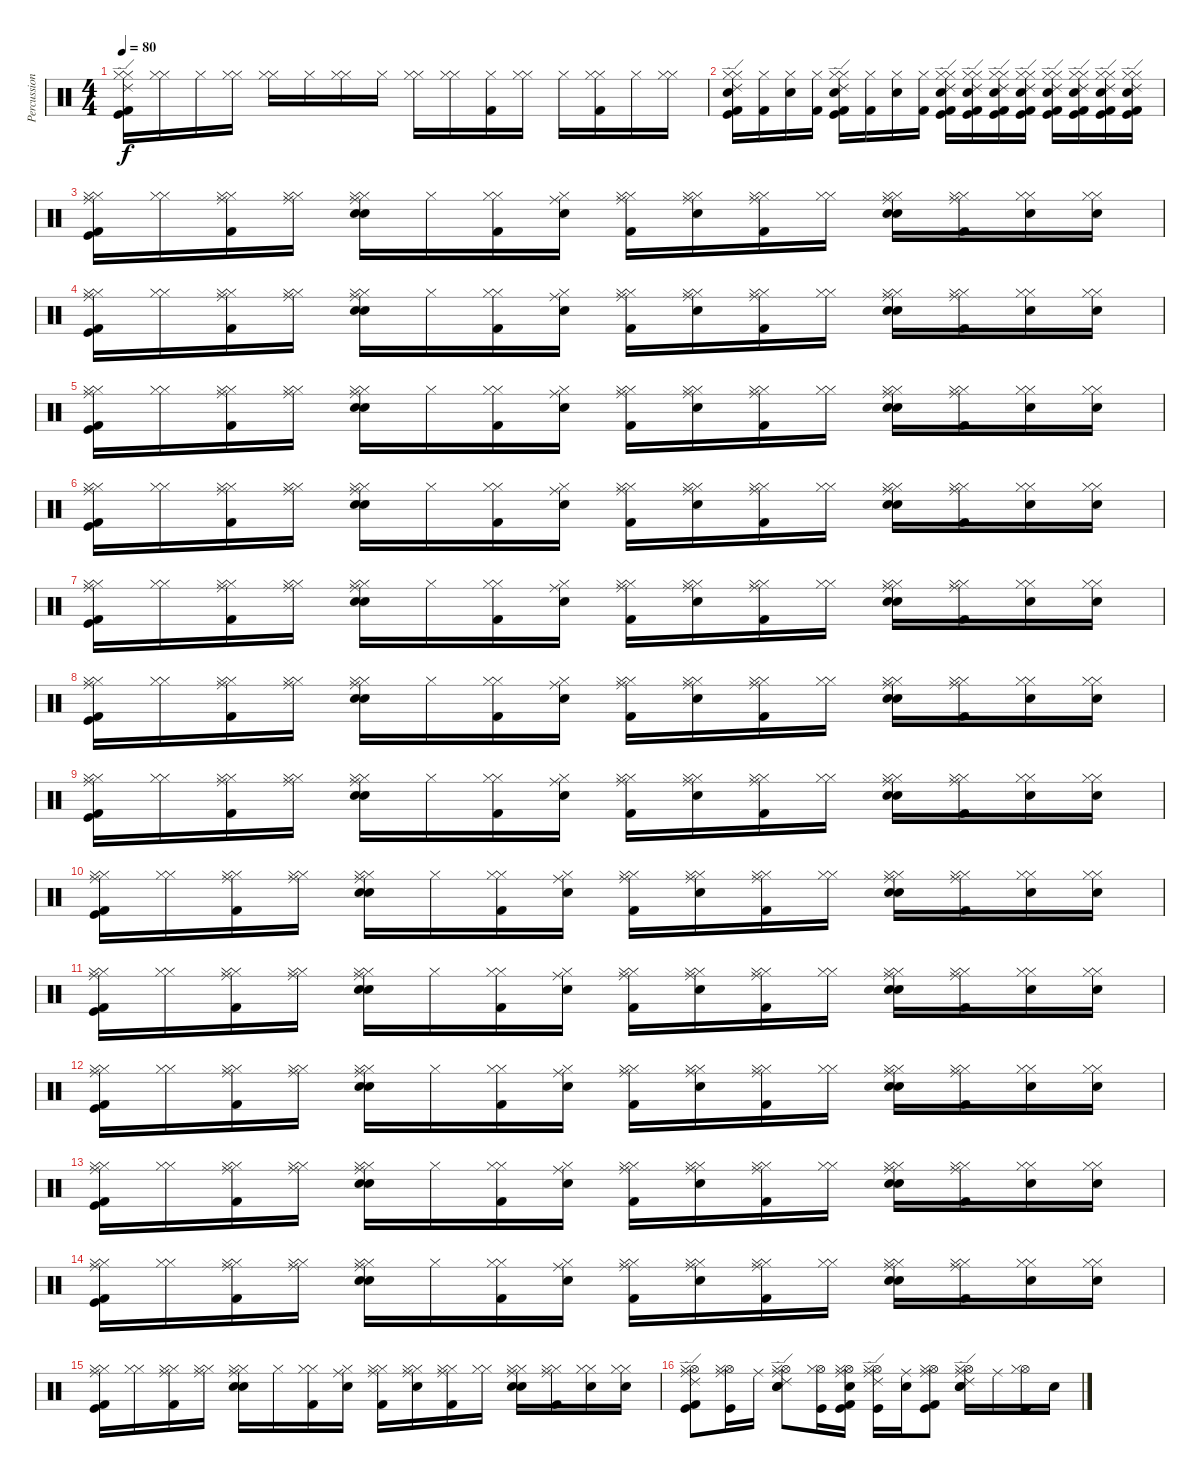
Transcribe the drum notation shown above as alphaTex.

\track ("Percussions" "Percussion") {instrument percussion}
\staff {score}
\articulation defaults
\ts (4 4)
\tempo 80
\clef neutral
\ks c
("Hi-Hat (closed)" "Hi-Hat (closed)" "Ride (edge) 2" "Kick (hit) 2" "Kick (hit)").16{dy f} ("Hi-Hat (closed)" "Hi-Hat (closed)").16 "Hi-Hat (closed)".16 ("Hi-Hat (closed)" "Hi-Hat (closed)").16 ("Hi-Hat (closed)" "Hi-Hat (closed)").16 "Hi-Hat (closed)".16 ("Hi-Hat (closed)" "Hi-Hat (closed)").16 "Hi-Hat (closed)".16 ("Hi-Hat (closed)" "Hi-Hat (closed)").16 ("Hi-Hat (closed)" "Hi-Hat (closed)").16 ("Hi-Hat (closed)" "Kick (hit) 2").16 ("Hi-Hat (closed)" "Hi-Hat (closed)").16 "Hi-Hat (closed)".16 ("Hi-Hat (closed)" "Hi-Hat (closed)" "Kick (hit) 2").16 "Hi-Hat (closed)".16 ("Hi-Hat (closed)" "Hi-Hat (closed)").16 |
("Ride (edge) 2" "Hi-Hat (closed)" "Hi-Hat (closed)" "Snare (hit) 2" "Kick (hit) 2" "Kick (hit)").16 ("Hi-Hat (closed)" "Kick (hit) 2").16 ("Hi-Hat (closed)" "Snare (hit) 2").16 ("Hi-Hat (closed)" "Kick (hit) 2").16 ("Hi-Hat (closed)" "Ride (edge) 2" "Hi-Hat (closed)" "Snare (hit) 2" "Kick (hit)" "Kick (hit) 2").16 ("Hi-Hat (closed)" "Kick (hit) 2").16 ("Hi-Hat (closed)" "Snare (hit) 2").16 ("Hi-Hat (closed)" "Kick (hit) 2").16 ("Ride (edge) 2" "Hi-Hat (closed)" "Electric Snare (hit)" "Hi-Hat (closed)" "Kick (hit) 2" "Kick (hit)").16 ("Ride (edge) 2" "Electric Snare (hit)" "Hi-Hat (closed)" "Hi-Hat (closed)" "Kick (hit) 2" "Kick (hit)").16 ("Hi-Hat (closed)" "Ride (edge) 2" "Electric Snare (hit)" "Hi-Hat (closed)" "Kick (hit) 2" "Kick (hit)").16 ("Hi-Hat (closed)" "Hi-Hat (closed)" "Ride (edge) 2" "Electric Snare (hit)" "Kick (hit) 2" "Kick (hit)").16 ("Hi-Hat (closed)" "Ride (edge) 2" "Electric Snare (hit)" "Hi-Hat (closed)" "Kick (hit) 2" "Kick (hit)").16 ("Ride (edge) 2" "Electric Snare (hit)" "Hi-Hat (closed)" "Hi-Hat (closed)" "Kick (hit) 2" "Kick (hit)").16 ("Hi-Hat (closed)" "Ride (edge) 2" "Electric Snare (hit)" "Hi-Hat (closed)" "Kick (hit) 2" "Kick (hit)").16 ("Hi-Hat (closed)" "Hi-Hat (closed)" "Ride (edge) 2" "Electric Snare (hit)" "Kick (hit) 2" "Kick (hit)").16 |
("Hi-Hat (closed)" "Hi-Hat (closed)" "Ride (middle)" "Kick (hit) 2" "Kick (hit)").16 ("Hi-Hat (closed)" "Hi-Hat (closed)").16 ("Hi-Hat (closed)" "Ride (middle)" "Hi-Hat (closed)" "Kick (hit) 2").16 ("Hi-Hat (closed)" "Hi-Hat (closed)" "Ride (middle)").16 ("Snare (hit) 2" "Electric Snare (hit)" "Hi-Hat (closed)" "Hi-Hat (closed)" "Ride (middle)").16 "Hi-Hat (closed)".16 ("Hi-Hat (closed)" "Hi-Hat (closed)" "Kick (hit) 2").16 ("Electric Snare (hit)" "Hi-Hat (closed)" "Ride (middle)").16 ("Hi-Hat (closed)" "Hi-Hat (closed)" "Ride (middle)" "Kick (hit) 2").16 ("Hi-Hat (closed)" "Hi-Hat (closed)" "Ride (middle)" "Electric Snare (hit)").16 ("Hi-Hat (closed)" "Ride (middle)" "Hi-Hat (closed)" "Kick (hit) 2").16 ("Hi-Hat (closed)" "Hi-Hat (closed)").16 ("Snare (hit) 2" "Electric Snare (hit)" "Hi-Hat (closed)" "Ride (middle)" "Hi-Hat (closed)").16 ("Hi-Hat (closed)" "Hi-Hat (closed)" "Ride (middle)" "Kick (hit) 2").16 ("Hi-Hat (closed)" "Hi-Hat (closed)" "Electric Snare (hit)").16 ("Hi-Hat (closed)" "Hi-Hat (closed)" "Electric Snare (hit)").16 |
("Hi-Hat (closed)" "Hi-Hat (closed)" "Ride (middle)" "Kick (hit) 2" "Kick (hit)").16 ("Hi-Hat (closed)" "Hi-Hat (closed)").16 ("Hi-Hat (closed)" "Ride (middle)" "Hi-Hat (closed)" "Kick (hit) 2").16 ("Hi-Hat (closed)" "Hi-Hat (closed)" "Ride (middle)").16 ("Snare (hit) 2" "Electric Snare (hit)" "Hi-Hat (closed)" "Hi-Hat (closed)" "Ride (middle)").16 "Hi-Hat (closed)".16 ("Hi-Hat (closed)" "Hi-Hat (closed)" "Kick (hit) 2").16 ("Electric Snare (hit)" "Hi-Hat (closed)" "Ride (middle)").16 ("Hi-Hat (closed)" "Hi-Hat (closed)" "Ride (middle)" "Kick (hit) 2").16 ("Hi-Hat (closed)" "Hi-Hat (closed)" "Ride (middle)" "Electric Snare (hit)").16 ("Hi-Hat (closed)" "Ride (middle)" "Hi-Hat (closed)" "Kick (hit) 2").16 ("Hi-Hat (closed)" "Hi-Hat (closed)").16 ("Snare (hit) 2" "Electric Snare (hit)" "Hi-Hat (closed)" "Ride (middle)" "Hi-Hat (closed)").16 ("Hi-Hat (closed)" "Hi-Hat (closed)" "Ride (middle)" "Kick (hit) 2").16 ("Hi-Hat (closed)" "Hi-Hat (closed)" "Electric Snare (hit)").16 ("Hi-Hat (closed)" "Hi-Hat (closed)" "Electric Snare (hit)").16 |
("Hi-Hat (closed)" "Hi-Hat (closed)" "Ride (middle)" "Kick (hit) 2" "Kick (hit)").16 ("Hi-Hat (closed)" "Hi-Hat (closed)").16 ("Hi-Hat (closed)" "Ride (middle)" "Hi-Hat (closed)" "Kick (hit) 2").16 ("Hi-Hat (closed)" "Hi-Hat (closed)" "Ride (middle)").16 ("Snare (hit) 2" "Electric Snare (hit)" "Hi-Hat (closed)" "Hi-Hat (closed)" "Ride (middle)").16 "Hi-Hat (closed)".16 ("Hi-Hat (closed)" "Hi-Hat (closed)" "Kick (hit) 2").16 ("Electric Snare (hit)" "Hi-Hat (closed)" "Ride (middle)").16 ("Hi-Hat (closed)" "Hi-Hat (closed)" "Ride (middle)" "Kick (hit) 2").16 ("Hi-Hat (closed)" "Hi-Hat (closed)" "Ride (middle)" "Electric Snare (hit)").16 ("Hi-Hat (closed)" "Ride (middle)" "Hi-Hat (closed)" "Kick (hit) 2").16 ("Hi-Hat (closed)" "Hi-Hat (closed)").16 ("Snare (hit) 2" "Electric Snare (hit)" "Hi-Hat (closed)" "Ride (middle)" "Hi-Hat (closed)").16 ("Hi-Hat (closed)" "Hi-Hat (closed)" "Ride (middle)" "Kick (hit) 2").16 ("Hi-Hat (closed)" "Hi-Hat (closed)" "Electric Snare (hit)").16 ("Hi-Hat (closed)" "Hi-Hat (closed)" "Electric Snare (hit)").16 |
("Hi-Hat (closed)" "Hi-Hat (closed)" "Ride (middle)" "Kick (hit) 2" "Kick (hit)").16 ("Hi-Hat (closed)" "Hi-Hat (closed)").16 ("Hi-Hat (closed)" "Ride (middle)" "Hi-Hat (closed)" "Kick (hit) 2").16 ("Hi-Hat (closed)" "Hi-Hat (closed)" "Ride (middle)").16 ("Snare (hit) 2" "Electric Snare (hit)" "Hi-Hat (closed)" "Hi-Hat (closed)" "Ride (middle)").16 "Hi-Hat (closed)".16 ("Hi-Hat (closed)" "Hi-Hat (closed)" "Kick (hit) 2").16 ("Electric Snare (hit)" "Hi-Hat (closed)" "Ride (middle)").16 ("Hi-Hat (closed)" "Hi-Hat (closed)" "Ride (middle)" "Kick (hit) 2").16 ("Hi-Hat (closed)" "Hi-Hat (closed)" "Ride (middle)" "Electric Snare (hit)").16 ("Hi-Hat (closed)" "Ride (middle)" "Hi-Hat (closed)" "Kick (hit) 2").16 ("Hi-Hat (closed)" "Hi-Hat (closed)").16 ("Snare (hit) 2" "Electric Snare (hit)" "Hi-Hat (closed)" "Ride (middle)" "Hi-Hat (closed)").16 ("Hi-Hat (closed)" "Hi-Hat (closed)" "Ride (middle)" "Kick (hit) 2").16 ("Hi-Hat (closed)" "Hi-Hat (closed)" "Electric Snare (hit)").16 ("Hi-Hat (closed)" "Hi-Hat (closed)" "Electric Snare (hit)").16 |
("Hi-Hat (closed)" "Hi-Hat (closed)" "Ride (middle)" "Kick (hit) 2" "Kick (hit)").16 ("Hi-Hat (closed)" "Hi-Hat (closed)").16 ("Hi-Hat (closed)" "Ride (middle)" "Hi-Hat (closed)" "Kick (hit) 2").16 ("Hi-Hat (closed)" "Hi-Hat (closed)" "Ride (middle)").16 ("Snare (hit) 2" "Electric Snare (hit)" "Hi-Hat (closed)" "Hi-Hat (closed)" "Ride (middle)").16 "Hi-Hat (closed)".16 ("Hi-Hat (closed)" "Hi-Hat (closed)" "Kick (hit) 2").16 ("Electric Snare (hit)" "Hi-Hat (closed)" "Ride (middle)").16 ("Hi-Hat (closed)" "Hi-Hat (closed)" "Ride (middle)" "Kick (hit) 2").16 ("Hi-Hat (closed)" "Hi-Hat (closed)" "Ride (middle)" "Electric Snare (hit)").16 ("Hi-Hat (closed)" "Ride (middle)" "Hi-Hat (closed)" "Kick (hit) 2").16 ("Hi-Hat (closed)" "Hi-Hat (closed)").16 ("Snare (hit) 2" "Electric Snare (hit)" "Hi-Hat (closed)" "Ride (middle)" "Hi-Hat (closed)").16 ("Hi-Hat (closed)" "Hi-Hat (closed)" "Ride (middle)" "Kick (hit) 2").16 ("Hi-Hat (closed)" "Hi-Hat (closed)" "Electric Snare (hit)").16 ("Hi-Hat (closed)" "Hi-Hat (closed)" "Electric Snare (hit)").16 |
("Hi-Hat (closed)" "Hi-Hat (closed)" "Ride (middle)" "Kick (hit) 2" "Kick (hit)").16 ("Hi-Hat (closed)" "Hi-Hat (closed)").16 ("Hi-Hat (closed)" "Ride (middle)" "Hi-Hat (closed)" "Kick (hit) 2").16 ("Hi-Hat (closed)" "Hi-Hat (closed)" "Ride (middle)").16 ("Snare (hit) 2" "Electric Snare (hit)" "Hi-Hat (closed)" "Hi-Hat (closed)" "Ride (middle)").16 "Hi-Hat (closed)".16 ("Hi-Hat (closed)" "Hi-Hat (closed)" "Kick (hit) 2").16 ("Electric Snare (hit)" "Hi-Hat (closed)" "Ride (middle)").16 ("Hi-Hat (closed)" "Hi-Hat (closed)" "Ride (middle)" "Kick (hit) 2").16 ("Hi-Hat (closed)" "Hi-Hat (closed)" "Ride (middle)" "Electric Snare (hit)").16 ("Hi-Hat (closed)" "Ride (middle)" "Hi-Hat (closed)" "Kick (hit) 2").16 ("Hi-Hat (closed)" "Hi-Hat (closed)").16 ("Snare (hit) 2" "Electric Snare (hit)" "Hi-Hat (closed)" "Ride (middle)" "Hi-Hat (closed)").16 ("Hi-Hat (closed)" "Hi-Hat (closed)" "Ride (middle)" "Kick (hit) 2").16 ("Hi-Hat (closed)" "Hi-Hat (closed)" "Electric Snare (hit)").16 ("Hi-Hat (closed)" "Hi-Hat (closed)" "Electric Snare (hit)").16 |
("Hi-Hat (closed)" "Hi-Hat (closed)" "Ride (middle)" "Kick (hit) 2" "Kick (hit)").16 ("Hi-Hat (closed)" "Hi-Hat (closed)").16 ("Hi-Hat (closed)" "Ride (middle)" "Hi-Hat (closed)" "Kick (hit) 2").16 ("Hi-Hat (closed)" "Hi-Hat (closed)" "Ride (middle)").16 ("Snare (hit) 2" "Electric Snare (hit)" "Hi-Hat (closed)" "Hi-Hat (closed)" "Ride (middle)").16 "Hi-Hat (closed)".16 ("Hi-Hat (closed)" "Hi-Hat (closed)" "Kick (hit) 2").16 ("Electric Snare (hit)" "Hi-Hat (closed)" "Ride (middle)").16 ("Hi-Hat (closed)" "Hi-Hat (closed)" "Ride (middle)" "Kick (hit) 2").16 ("Hi-Hat (closed)" "Hi-Hat (closed)" "Ride (middle)" "Electric Snare (hit)").16 ("Hi-Hat (closed)" "Ride (middle)" "Hi-Hat (closed)" "Kick (hit) 2").16 ("Hi-Hat (closed)" "Hi-Hat (closed)").16 ("Snare (hit) 2" "Electric Snare (hit)" "Hi-Hat (closed)" "Ride (middle)" "Hi-Hat (closed)").16 ("Hi-Hat (closed)" "Hi-Hat (closed)" "Ride (middle)" "Kick (hit) 2").16 ("Hi-Hat (closed)" "Hi-Hat (closed)" "Electric Snare (hit)").16 ("Hi-Hat (closed)" "Hi-Hat (closed)" "Electric Snare (hit)").16 |
("Hi-Hat (closed)" "Hi-Hat (closed)" "Ride (middle)" "Kick (hit) 2" "Kick (hit)").16 ("Hi-Hat (closed)" "Hi-Hat (closed)").16 ("Hi-Hat (closed)" "Ride (middle)" "Hi-Hat (closed)" "Kick (hit) 2").16 ("Hi-Hat (closed)" "Hi-Hat (closed)" "Ride (middle)").16 ("Snare (hit) 2" "Electric Snare (hit)" "Hi-Hat (closed)" "Hi-Hat (closed)" "Ride (middle)").16 "Hi-Hat (closed)".16 ("Hi-Hat (closed)" "Hi-Hat (closed)" "Kick (hit) 2").16 ("Electric Snare (hit)" "Hi-Hat (closed)" "Ride (middle)").16 ("Hi-Hat (closed)" "Hi-Hat (closed)" "Ride (middle)" "Kick (hit) 2").16 ("Hi-Hat (closed)" "Hi-Hat (closed)" "Ride (middle)" "Electric Snare (hit)").16 ("Hi-Hat (closed)" "Ride (middle)" "Hi-Hat (closed)" "Kick (hit) 2").16 ("Hi-Hat (closed)" "Hi-Hat (closed)").16 ("Snare (hit) 2" "Electric Snare (hit)" "Hi-Hat (closed)" "Ride (middle)" "Hi-Hat (closed)").16 ("Hi-Hat (closed)" "Hi-Hat (closed)" "Ride (middle)" "Kick (hit) 2").16 ("Hi-Hat (closed)" "Hi-Hat (closed)" "Electric Snare (hit)").16 ("Hi-Hat (closed)" "Hi-Hat (closed)" "Electric Snare (hit)").16 |
("Hi-Hat (closed)" "Hi-Hat (closed)" "Ride (middle)" "Kick (hit) 2" "Kick (hit)").16 ("Hi-Hat (closed)" "Hi-Hat (closed)").16 ("Hi-Hat (closed)" "Ride (middle)" "Hi-Hat (closed)" "Kick (hit) 2").16 ("Hi-Hat (closed)" "Hi-Hat (closed)" "Ride (middle)").16 ("Snare (hit) 2" "Electric Snare (hit)" "Hi-Hat (closed)" "Hi-Hat (closed)" "Ride (middle)").16 "Hi-Hat (closed)".16 ("Hi-Hat (closed)" "Hi-Hat (closed)" "Kick (hit) 2").16 ("Electric Snare (hit)" "Hi-Hat (closed)" "Ride (middle)").16 ("Hi-Hat (closed)" "Hi-Hat (closed)" "Ride (middle)" "Kick (hit) 2").16 ("Hi-Hat (closed)" "Hi-Hat (closed)" "Ride (middle)" "Electric Snare (hit)").16 ("Hi-Hat (closed)" "Ride (middle)" "Hi-Hat (closed)" "Kick (hit) 2").16 ("Hi-Hat (closed)" "Hi-Hat (closed)").16 ("Snare (hit) 2" "Electric Snare (hit)" "Hi-Hat (closed)" "Ride (middle)" "Hi-Hat (closed)").16 ("Hi-Hat (closed)" "Hi-Hat (closed)" "Ride (middle)" "Kick (hit) 2").16 ("Hi-Hat (closed)" "Hi-Hat (closed)" "Electric Snare (hit)").16 ("Hi-Hat (closed)" "Hi-Hat (closed)" "Electric Snare (hit)").16 |
("Hi-Hat (closed)" "Hi-Hat (closed)" "Ride (middle)" "Kick (hit) 2" "Kick (hit)").16 ("Hi-Hat (closed)" "Hi-Hat (closed)").16 ("Hi-Hat (closed)" "Ride (middle)" "Hi-Hat (closed)" "Kick (hit) 2").16 ("Hi-Hat (closed)" "Hi-Hat (closed)" "Ride (middle)").16 ("Snare (hit) 2" "Electric Snare (hit)" "Hi-Hat (closed)" "Hi-Hat (closed)" "Ride (middle)").16 "Hi-Hat (closed)".16 ("Hi-Hat (closed)" "Hi-Hat (closed)" "Kick (hit) 2").16 ("Electric Snare (hit)" "Hi-Hat (closed)" "Ride (middle)").16 ("Hi-Hat (closed)" "Hi-Hat (closed)" "Ride (middle)" "Kick (hit) 2").16 ("Hi-Hat (closed)" "Hi-Hat (closed)" "Ride (middle)" "Electric Snare (hit)").16 ("Hi-Hat (closed)" "Ride (middle)" "Hi-Hat (closed)" "Kick (hit) 2").16 ("Hi-Hat (closed)" "Hi-Hat (closed)").16 ("Snare (hit) 2" "Electric Snare (hit)" "Hi-Hat (closed)" "Ride (middle)" "Hi-Hat (closed)").16 ("Hi-Hat (closed)" "Hi-Hat (closed)" "Ride (middle)" "Kick (hit) 2").16 ("Hi-Hat (closed)" "Hi-Hat (closed)" "Electric Snare (hit)").16 ("Hi-Hat (closed)" "Hi-Hat (closed)" "Electric Snare (hit)").16 |
("Hi-Hat (closed)" "Hi-Hat (closed)" "Ride (middle)" "Kick (hit) 2" "Kick (hit)").16 ("Hi-Hat (closed)" "Hi-Hat (closed)").16 ("Hi-Hat (closed)" "Ride (middle)" "Hi-Hat (closed)" "Kick (hit) 2").16 ("Hi-Hat (closed)" "Hi-Hat (closed)" "Ride (middle)").16 ("Snare (hit) 2" "Electric Snare (hit)" "Hi-Hat (closed)" "Hi-Hat (closed)" "Ride (middle)").16 "Hi-Hat (closed)".16 ("Hi-Hat (closed)" "Hi-Hat (closed)" "Kick (hit) 2").16 ("Electric Snare (hit)" "Hi-Hat (closed)" "Ride (middle)").16 ("Hi-Hat (closed)" "Hi-Hat (closed)" "Ride (middle)" "Kick (hit) 2").16 ("Hi-Hat (closed)" "Hi-Hat (closed)" "Ride (middle)" "Electric Snare (hit)").16 ("Hi-Hat (closed)" "Ride (middle)" "Hi-Hat (closed)" "Kick (hit) 2").16 ("Hi-Hat (closed)" "Hi-Hat (closed)").16 ("Snare (hit) 2" "Electric Snare (hit)" "Hi-Hat (closed)" "Ride (middle)" "Hi-Hat (closed)").16 ("Hi-Hat (closed)" "Hi-Hat (closed)" "Ride (middle)" "Kick (hit) 2").16 ("Hi-Hat (closed)" "Hi-Hat (closed)" "Electric Snare (hit)").16 ("Hi-Hat (closed)" "Hi-Hat (closed)" "Electric Snare (hit)").16 |
("Hi-Hat (closed)" "Hi-Hat (closed)" "Ride (middle)" "Kick (hit) 2" "Kick (hit)").16 ("Hi-Hat (closed)" "Hi-Hat (closed)").16 ("Hi-Hat (closed)" "Ride (middle)" "Hi-Hat (closed)" "Kick (hit) 2").16 ("Hi-Hat (closed)" "Hi-Hat (closed)" "Ride (middle)").16 ("Snare (hit) 2" "Electric Snare (hit)" "Hi-Hat (closed)" "Hi-Hat (closed)" "Ride (middle)").16 "Hi-Hat (closed)".16 ("Hi-Hat (closed)" "Hi-Hat (closed)" "Kick (hit) 2").16 ("Electric Snare (hit)" "Hi-Hat (closed)" "Ride (middle)").16 ("Hi-Hat (closed)" "Hi-Hat (closed)" "Ride (middle)" "Kick (hit) 2").16 ("Hi-Hat (closed)" "Hi-Hat (closed)" "Ride (middle)" "Electric Snare (hit)").16 ("Hi-Hat (closed)" "Ride (middle)" "Hi-Hat (closed)" "Kick (hit) 2").16 ("Hi-Hat (closed)" "Hi-Hat (closed)").16 ("Snare (hit) 2" "Electric Snare (hit)" "Hi-Hat (closed)" "Ride (middle)" "Hi-Hat (closed)").16 ("Hi-Hat (closed)" "Hi-Hat (closed)" "Ride (middle)" "Kick (hit) 2").16 ("Hi-Hat (closed)" "Hi-Hat (closed)" "Electric Snare (hit)").16 ("Hi-Hat (closed)" "Hi-Hat (closed)" "Electric Snare (hit)").16 |
("Hi-Hat (closed)" "Hi-Hat (closed)" "Ride (middle)" "Kick (hit) 2" "Kick (hit)").16 ("Hi-Hat (closed)" "Hi-Hat (closed)").16 ("Hi-Hat (closed)" "Ride (middle)" "Hi-Hat (closed)" "Kick (hit) 2").16 ("Hi-Hat (closed)" "Hi-Hat (closed)" "Ride (middle)").16 ("Snare (hit) 2" "Electric Snare (hit)" "Hi-Hat (closed)" "Hi-Hat (closed)" "Ride (middle)").16 "Hi-Hat (closed)".16 ("Hi-Hat (closed)" "Hi-Hat (closed)" "Kick (hit) 2").16 ("Electric Snare (hit)" "Hi-Hat (closed)" "Ride (middle)").16 ("Hi-Hat (closed)" "Hi-Hat (closed)" "Ride (middle)" "Kick (hit) 2").16 ("Hi-Hat (closed)" "Hi-Hat (closed)" "Ride (middle)" "Electric Snare (hit)").16 ("Hi-Hat (closed)" "Ride (middle)" "Hi-Hat (closed)" "Kick (hit) 2").16 ("Hi-Hat (closed)" "Hi-Hat (closed)").16 ("Snare (hit) 2" "Electric Snare (hit)" "Hi-Hat (closed)" "Ride (middle)" "Hi-Hat (closed)").16 ("Hi-Hat (closed)" "Hi-Hat (closed)" "Ride (middle)" "Kick (hit) 2").16 ("Hi-Hat (closed)" "Hi-Hat (closed)" "Electric Snare (hit)").16 ("Hi-Hat (closed)" "Hi-Hat (closed)" "Electric Snare (hit)").16 |
("Hi-Hat (open)" "Hi-Hat (closed)" "Ride (middle)" "Ride (edge) 2" "Kick (hit)" "Kick (hit) 2").8 ("Hi-Hat (open)" "Hi-Hat (closed)" "Ride (middle)" "Kick (hit)").16 "Ride (middle)".16 ("Electric Snare (hit)" "Hi-Hat (open)" "Snare (hit) 2" "Hi-Hat (closed)" "Ride (middle)" "Ride (edge) 2").8 ("Hi-Hat (open)" "Hi-Hat (closed)" "Kick (hit)").16 ("Hi-Hat (open)" "Hi-Hat (closed)" "Ride (middle)" "Snare (hit) 2" "Kick (hit)" "Kick (hit) 2").16 ("Hi-Hat (open)" "Hi-Hat (closed)" "Ride (middle)" "Kick (hit)" "Ride (edge) 2").16 ("Ride (middle)" "Snare (hit) 2").16 ("Hi-Hat (open)" "Hi-Hat (closed)" "Ride (middle)" "Kick (hit)" "Kick (hit) 2").8 ("Electric Snare (hit)" "Hi-Hat (open)" "Snare (hit) 2" "Hi-Hat (closed)" "Ride (middle)" "Ride (edge) 2").16 "Ride (middle)".16 ("Hi-Hat (open)" "Hi-Hat (closed)" "Kick (hit)").16 "Snare (hit) 2".16
